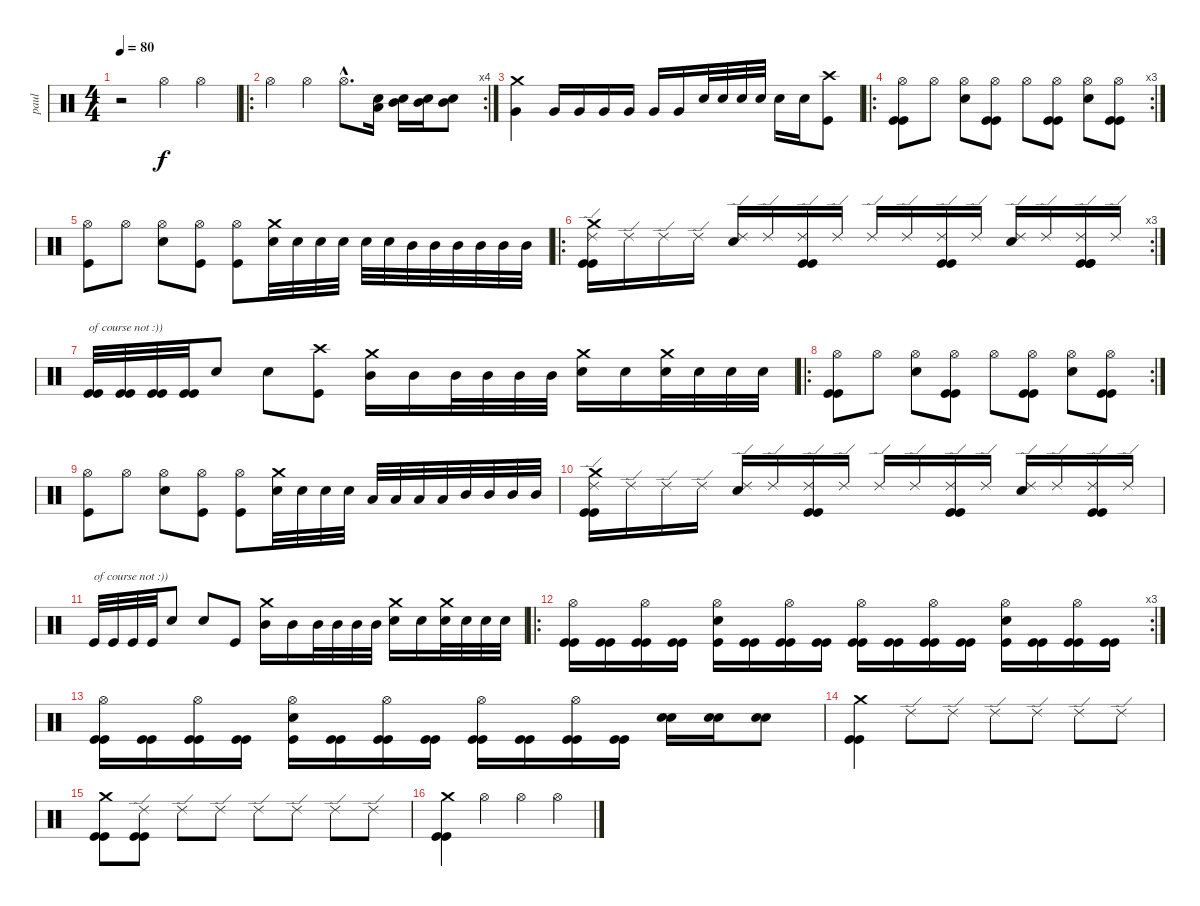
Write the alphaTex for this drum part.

\track ("paul" "paul") {instrument percussion}
\staff {score}
\articulation defaults
\ts (4 4)
\tempo 80
\clef neutral
\ks c
r.2{dy f} "Hi-Hat (open)".4 "Hi-Hat (open)".4 |
\ro
\rc 4 "Hi-Hat (open)".4 "Hi-Hat (open)".4 "Hi-Hat (open)"{hac}.8{d}
("Low Tom (hit)" "Snare (hit) 2").16 ("Mid Tom (hit)" "Snare (hit) 2").16 ("Mid Tom (hit)" "Snare (hit) 2").16 ("Mid Tom (hit)" "Snare (hit) 2").8 |
("Crash medium (hit)" "Very Low Tom (hit)").4 "Very Low Tom (hit)".16 "Very Low Tom (hit)".16 "Very Low Tom (hit)".16 "Very Low Tom (hit)".16 "Very Low Tom (hit)".16 "Very Low Tom (hit)".16 "Snare (hit) 2".32 "Snare (hit) 2".32 "Snare (hit) 2".32 "Snare (hit) 2".32 "Snare (hit) 2".16 "Snare (hit) 2".16 ("Crash high (hit)" "Kick (hit)").8 |
\ro
\rc 3
("Hi-Hat (open)" "Kick (hit)" "Kick (hit)").8 "Hi-Hat (open)".8 ("Hi-Hat (open)" "Snare (hit) 2").8 ("Hi-Hat (open)" "Kick (hit)" "Kick (hit)").8 "Hi-Hat (open)".8 ("Hi-Hat (open)" "Kick (hit)" "Kick (hit)").8 ("Hi-Hat (open)" "Snare (hit) 2").8 ("Hi-Hat (open)" "Kick (hit)" "Kick (hit)").8 |
("Hi-Hat (open)" "Kick (hit)").8 "Hi-Hat (open)".8 ("Hi-Hat (open)" "Snare (hit) 2").8 ("Hi-Hat (open)" "Kick (hit)").8 ("Hi-Hat (open)" "Kick (hit)").8 ("Crash medium (hit)" "Snare (hit) 2").32 "Snare (hit) 2".32 "Snare (hit) 2".32 "Snare (hit) 2".32 "Snare (hit) 2".32 "Snare (hit) 2".32 "Mid Tom (hit)".32 "Mid Tom (hit)".32 "Mid Tom (hit)".32 "Mid Tom (hit)".32 "Mid Tom (hit)".32 "Mid Tom (hit)".32 |
\ro
\rc 3
("Ride (edge) 2" "Kick (hit)" "Crash medium (hit)" "Kick (hit)").16 "Ride (edge) 2".16 "Ride (edge) 2".16 "Ride (edge) 2".16 ("Ride (edge) 2" "Snare (hit) 2").16 "Ride (edge) 2".16 ("Ride (edge) 2" "Kick (hit)" "Kick (hit)").16 "Ride (edge) 2".16 "Ride (edge) 2".16 "Ride (edge) 2".16 ("Ride (edge) 2" "Kick (hit)" "Kick (hit)").16 "Ride (edge) 2".16 ("Ride (edge) 2" "Snare (hit) 2").16 "Ride (edge) 2".16 ("Ride (edge) 2" "Kick (hit)" "Kick (hit)" "Kick (hit)").16 "Ride (edge) 2".16 |
("Kick (hit)" "Kick (hit)").32{txt "of course not :))"} ("Kick (hit)" "Kick (hit)").32 ("Kick (hit)" "Kick (hit)").32 ("Kick (hit)" "Kick (hit)").32 "Snare (hit) 2".8 "Snare (hit) 2".8 ("Crash high (hit)" "Kick (hit)").8 ("Crash medium (hit)" "Mid Tom (hit)").16 "Mid Tom (hit)".16 "Mid Tom (hit)".32 "Mid Tom (hit)".32 "Mid Tom (hit)".32 "Mid Tom (hit)".32 ("Crash medium (hit)" "Snare (hit) 2").16 "Snare (hit) 2".16 ("Crash medium (hit)" "Snare (hit) 2").32 "Snare (hit) 2".32 "Snare (hit) 2".32 "Snare (hit) 2".32 |
\ro
\rc 2
("Hi-Hat (open)" "Kick (hit)" "Kick (hit)").8 "Hi-Hat (open)".8 ("Hi-Hat (open)" "Snare (hit) 2").8 ("Hi-Hat (open)" "Kick (hit)" "Kick (hit)").8 "Hi-Hat (open)".8 ("Hi-Hat (open)" "Kick (hit)" "Kick (hit)").8 ("Hi-Hat (open)" "Snare (hit) 2").8 ("Hi-Hat (open)" "Kick (hit)" "Kick (hit)").8 |
("Hi-Hat (open)" "Kick (hit)").8 "Hi-Hat (open)".8 ("Hi-Hat (open)" "Snare (hit) 2").8 ("Hi-Hat (open)" "Kick (hit)").8 ("Hi-Hat (open)" "Kick (hit)").8 ("Crash medium (hit)" "Snare (hit) 2").32 "Snare (hit) 2".32 "Snare (hit) 2".32 "Snare (hit) 2".32 "Low Tom (hit)".32 "Low Tom (hit)".32 "Low Tom (hit)".32 "Low Tom (hit)".32 "Mid Tom (hit)".32 "Mid Tom (hit)".32 "Mid Tom (hit)".32 "Mid Tom (hit)".32 |
("Ride (edge) 2" "Kick (hit)" "Crash medium (hit)" "Kick (hit)").16 "Ride (edge) 2".16 "Ride (edge) 2".16 "Ride (edge) 2".16 ("Ride (edge) 2" "Snare (hit) 2").16 "Ride (edge) 2".16 ("Ride (edge) 2" "Kick (hit)" "Kick (hit)").16 "Ride (edge) 2".16 "Ride (edge) 2".16 "Ride (edge) 2".16 ("Ride (edge) 2" "Kick (hit)" "Kick (hit)").16 "Ride (edge) 2".16 ("Ride (edge) 2" "Snare (hit) 2").16 "Ride (edge) 2".16 ("Ride (edge) 2" "Kick (hit)" "Kick (hit)").16 "Ride (edge) 2".16 |
"Kick (hit)".32{txt "of course not :))"} "Kick (hit)".32 "Kick (hit)".32 "Kick (hit)".32 "Snare (hit) 2".8 "Snare (hit) 2".8 "Kick (hit)".8 ("Crash medium (hit)" "Mid Tom (hit)").16 "Mid Tom (hit)".16 "Mid Tom (hit)".32 "Mid Tom (hit)".32 "Mid Tom (hit)".32 "Mid Tom (hit)".32 ("Crash medium (hit)" "Snare (hit) 2").16 "Snare (hit) 2".16 ("Crash medium (hit)" "Snare (hit) 2").32 "Snare (hit) 2".32 "Snare (hit) 2".32 "Snare (hit) 2".32 |
\ro
\rc 3
("Hi-Hat (open)" "Kick (hit)" "Kick (hit)").16 ("Kick (hit)" "Kick (hit)").16 ("Hi-Hat (open)" "Kick (hit)" "Kick (hit)").16 ("Kick (hit)" "Kick (hit)").16 ("Hi-Hat (open)" "Kick (hit)" "Snare (hit) 2").16 ("Kick (hit)" "Kick (hit)").16 ("Hi-Hat (open)" "Kick (hit)" "Kick (hit)").16 ("Kick (hit)" "Kick (hit)").16 ("Hi-Hat (open)" "Kick (hit)" "Kick (hit)").16 ("Kick (hit)" "Kick (hit)").16 ("Hi-Hat (open)" "Kick (hit)" "Kick (hit)").16 ("Kick (hit)" "Kick (hit)").16 ("Hi-Hat (open)" "Kick (hit)" "Snare (hit) 2").16 ("Kick (hit)" "Kick (hit)").16 ("Hi-Hat (open)" "Kick (hit)" "Kick (hit)").16 ("Kick (hit)" "Kick (hit)").16 |
("Hi-Hat (open)" "Kick (hit)" "Kick (hit)").16 ("Kick (hit)" "Kick (hit)").16 ("Hi-Hat (open)" "Kick (hit)" "Kick (hit)").16 ("Kick (hit)" "Kick (hit)").16 ("Hi-Hat (open)" "Kick (hit)" "Snare (hit) 2").16 ("Kick (hit)" "Kick (hit)").16 ("Hi-Hat (open)" "Kick (hit)" "Kick (hit)").16 ("Kick (hit)" "Kick (hit)").16 ("Hi-Hat (open)" "Kick (hit)" "Kick (hit)").16 ("Kick (hit)" "Kick (hit)").16 ("Hi-Hat (open)" "Kick (hit)" "Kick (hit)").16 ("Kick (hit)" "Kick (hit)").16 ("Snare (hit) 2" "Snare (hit) 2").16 ("Snare (hit) 2" "Snare (hit) 2").16 ("Snare (hit) 2" "Snare (hit) 2").8 |
("Crash medium (hit)" "Kick (hit)" "Kick (hit)").4 "Ride (edge) 2".8 "Ride (edge) 2".8 "Ride (edge) 2".8 "Ride (edge) 2".8 "Ride (edge) 2".8 "Ride (edge) 2".8 |
("Crash medium (hit)" "Kick (hit)" "Kick (hit)").8 ("Ride (edge) 2" "Kick (hit)" "Kick (hit)").8 "Ride (edge) 2".8 "Ride (edge) 2".8 "Ride (edge) 2".8 "Ride (edge) 2".8 "Ride (edge) 2".8 "Ride (edge) 2".8 |
("Crash medium (hit)" "Kick (hit)" "Kick (hit)").4 "Hi-Hat (open)".4 "Hi-Hat (open)".4 "Hi-Hat (open)".4
